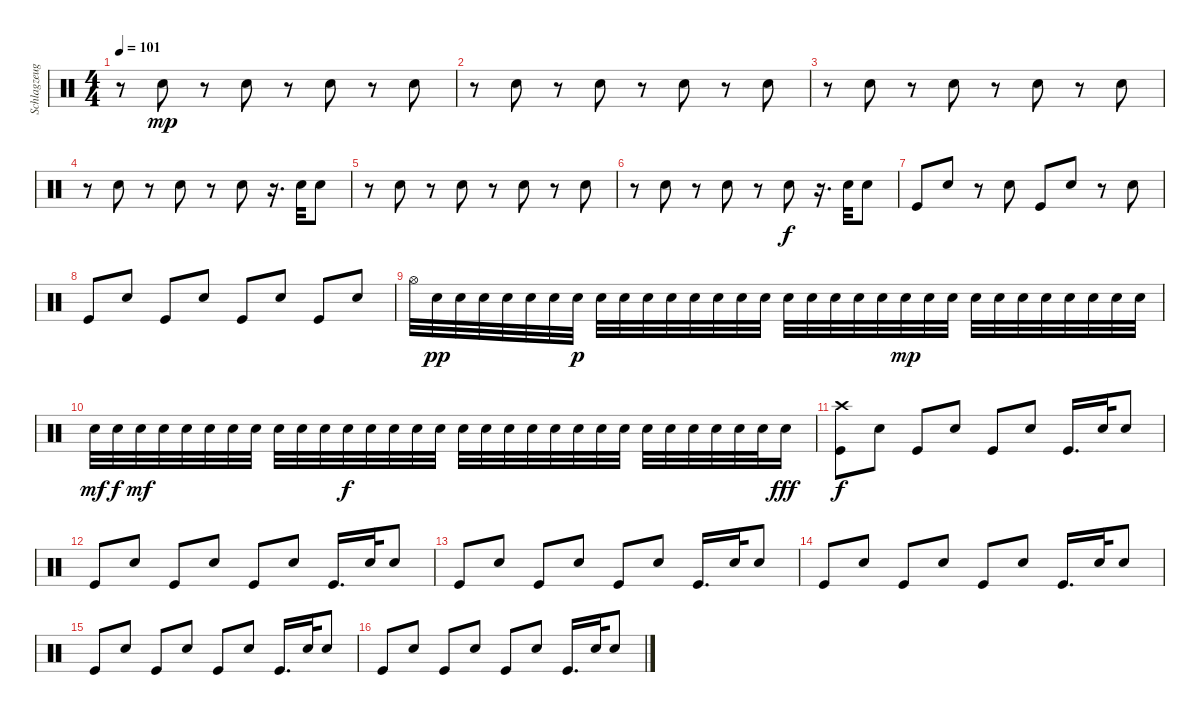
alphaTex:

\track ("Schlagzeug" "Schlagzeug") {instrument percussion}
\staff {score}
\articulation defaults
\ts (4 4)
\tempo 101
\clef neutral
\ks c
r.8{dy f} "Snare (hit) 2".8{dy mp} r.8 "Snare (hit) 2".8 r.8 "Snare (hit) 2".8 r.8 "Snare (hit) 2".8 |
r.8 "Snare (hit) 2".8 r.8 "Snare (hit) 2".8 r.8 "Snare (hit) 2".8 r.8 "Snare (hit) 2".8 |
r.8 "Snare (hit) 2".8 r.8 "Snare (hit) 2".8 r.8 "Snare (hit) 2".8 r.8 "Snare (hit) 2".8 |
r.8 "Snare (hit) 2".8 r.8 "Snare (hit) 2".8 r.8 "Snare (hit) 2".8 r.16{d} "Snare (hit) 2".32 "Snare (hit) 2".8 |
r.8 "Snare (hit) 2".8 r.8 "Snare (hit) 2".8 r.8 "Snare (hit) 2".8 r.8 "Snare (hit) 2".8 |
r.8 "Snare (hit) 2".8 r.8 "Snare (hit) 2".8 r.8 "Snare (hit) 2".8{dy f} r.16{d} "Snare (hit) 2".32 "Snare (hit) 2".8 |
"Kick (hit)".8 "Snare (hit) 2".8 r.8 "Snare (hit) 2".8 "Kick (hit)".8 "Snare (hit) 2".8 r.8 "Snare (hit) 2".8 |
"Kick (hit)".8 "Snare (hit) 2".8 "Kick (hit)".8 "Snare (hit) 2".8 "Kick (hit)".8 "Snare (hit) 2".8 "Kick (hit)".8 "Snare (hit) 2".8 |
"Hi-Hat (open)".32 "Snare (hit) 2".32{dy pp} "Snare (hit) 2".32 "Snare (hit) 2".32 "Snare (hit) 2".32 "Snare (hit) 2".32 "Snare (hit) 2".32 "Snare (hit) 2".32{dy p} "Snare (hit) 2".32 "Snare (hit) 2".32 "Snare (hit) 2".32 "Snare (hit) 2".32 "Snare (hit) 2".32 "Snare (hit) 2".32 "Snare (hit) 2".32 "Snare (hit) 2".32 "Snare (hit) 2".32 "Snare (hit) 2".32 "Snare (hit) 2".32 "Snare (hit) 2".32 "Snare (hit) 2".32 "Snare (hit) 2".32{dy mp} "Snare (hit) 2".32 "Snare (hit) 2".32 "Snare (hit) 2".32 "Snare (hit) 2".32 "Snare (hit) 2".32 "Snare (hit) 2".32 "Snare (hit) 2".32 "Snare (hit) 2".32 "Snare (hit) 2".32 "Snare (hit) 2".32 |
"Snare (hit) 2".32{dy mf} "Snare (hit) 2".32{dy f} "Snare (hit) 2".32{dy mf} "Snare (hit) 2".32 "Snare (hit) 2".32 "Snare (hit) 2".32 "Snare (hit) 2".32 "Snare (hit) 2".32 "Snare (hit) 2".32 "Snare (hit) 2".32 "Snare (hit) 2".32 "Snare (hit) 2".32{dy f} "Snare (hit) 2".32 "Snare (hit) 2".32 "Snare (hit) 2".32 "Snare (hit) 2".32 "Snare (hit) 2".32 "Snare (hit) 2".32 "Snare (hit) 2".32 "Snare (hit) 2".32 "Snare (hit) 2".32 "Snare (hit) 2".32 "Snare (hit) 2".32 "Snare (hit) 2".32 "Snare (hit) 2".32 "Snare (hit) 2".32 "Snare (hit) 2".32 "Snare (hit) 2".32 "Snare (hit) 2".32 "Snare (hit) 2".32 "Snare (hit) 2".16{dy fff} |
("Crash high (hit)" "Kick (hit)").8{dy f} "Snare (hit) 2".8 "Kick (hit)".8 "Snare (hit) 2".8 "Kick (hit)".8 "Snare (hit) 2".8 "Kick (hit)".16{d} "Snare (hit) 2".32 "Snare (hit) 2".8 |
"Kick (hit)".8 "Snare (hit) 2".8 "Kick (hit)".8 "Snare (hit) 2".8 "Kick (hit)".8 "Snare (hit) 2".8 "Kick (hit)".16{d} "Snare (hit) 2".32 "Snare (hit) 2".8 |
"Kick (hit)".8 "Snare (hit) 2".8 "Kick (hit)".8 "Snare (hit) 2".8 "Kick (hit)".8 "Snare (hit) 2".8 "Kick (hit)".16{d} "Snare (hit) 2".32 "Snare (hit) 2".8 |
"Kick (hit)".8 "Snare (hit) 2".8 "Kick (hit)".8 "Snare (hit) 2".8 "Kick (hit)".8 "Snare (hit) 2".8 "Kick (hit)".16{d} "Snare (hit) 2".32 "Snare (hit) 2".8 |
"Kick (hit)".8 "Snare (hit) 2".8 "Kick (hit)".8 "Snare (hit) 2".8 "Kick (hit)".8 "Snare (hit) 2".8 "Kick (hit)".16{d} "Snare (hit) 2".32 "Snare (hit) 2".8 |
"Kick (hit)".8 "Snare (hit) 2".8 "Kick (hit)".8 "Snare (hit) 2".8 "Kick (hit)".8 "Snare (hit) 2".8 "Kick (hit)".16{d} "Snare (hit) 2".32 "Snare (hit) 2".8
